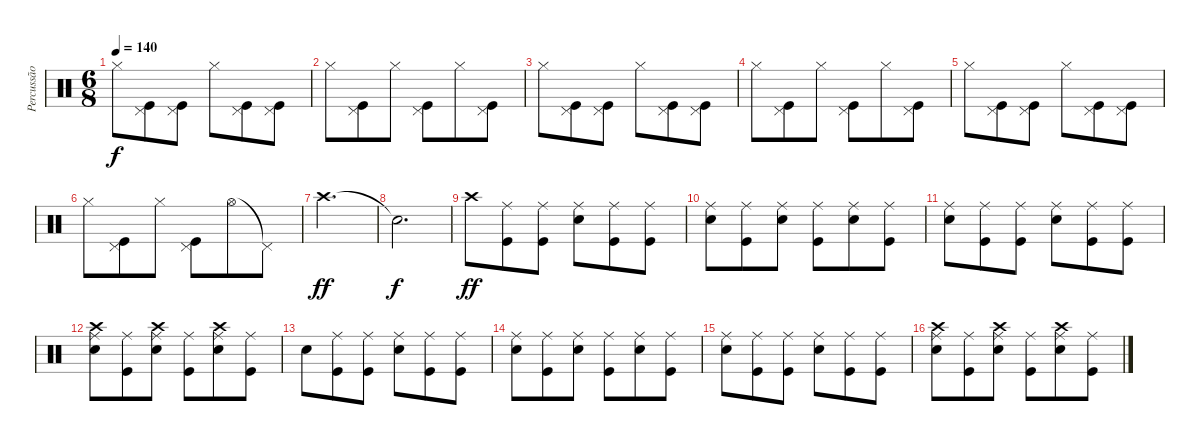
\track ("Percussão" "Percussão") {instrument percussion}
\staff {score}
\articulation defaults
\ts (6 8)
\tempo 140
\clef neutral
\ks c "Hi-Hat (closed)".8{dy f}
("Pedal Hi-Hat (hit)" "Kick (hit)").8 ("Pedal Hi-Hat (hit)" "Kick (hit)").8 "Hi-Hat (closed)".8 ("Pedal Hi-Hat (hit)" "Kick (hit)").8 ("Pedal Hi-Hat (hit)" "Kick (hit)").8 |
"Hi-Hat (closed)".8 ("Pedal Hi-Hat (hit)" "Kick (hit)").8 "Hi-Hat (closed)".8 ("Pedal Hi-Hat (hit)" "Kick (hit)").8 "Hi-Hat (closed)".8 ("Pedal Hi-Hat (hit)" "Kick (hit)").8 |
"Hi-Hat (closed)".8 ("Pedal Hi-Hat (hit)" "Kick (hit)").8 ("Pedal Hi-Hat (hit)" "Kick (hit)").8 "Hi-Hat (closed)".8 ("Pedal Hi-Hat (hit)" "Kick (hit)").8 ("Pedal Hi-Hat (hit)" "Kick (hit)").8 |
"Hi-Hat (closed)".8 ("Pedal Hi-Hat (hit)" "Kick (hit)").8 "Hi-Hat (closed)".8 ("Pedal Hi-Hat (hit)" "Kick (hit)").8 "Hi-Hat (closed)".8 ("Pedal Hi-Hat (hit)" "Kick (hit)").8 |
"Hi-Hat (closed)".8 ("Pedal Hi-Hat (hit)" "Kick (hit)").8 ("Pedal Hi-Hat (hit)" "Kick (hit)").8 "Hi-Hat (closed)".8 ("Pedal Hi-Hat (hit)" "Kick (hit)").8 ("Pedal Hi-Hat (hit)" "Kick (hit)").8 |
"Hi-Hat (closed)".8 ("Pedal Hi-Hat (hit)" "Kick (hit)").8 "Hi-Hat (closed)".8 ("Pedal Hi-Hat (hit)" "Kick (hit)").8 "Hi-Hat (open)".8 "Pedal Hi-Hat (hit)"{t}.8 |
"Crash high (hit)".2{d dy ff} |
"Snare (hit)"{t}.2{d dy f} |
"Crash high (hit)".8{dy ff} ("Ride (middle)" "Kick (hit)").8 ("Ride (middle)" "Kick (hit)").8 ("Ride (middle)" "Snare (hit) 2").8 ("Ride (middle)" "Kick (hit)").8 ("Ride (middle)" "Kick (hit)").8 |
("Ride (middle)" "Snare (hit) 2").8 ("Ride (middle)" "Kick (hit)").8 ("Ride (middle)" "Snare (hit) 2").8 ("Ride (middle)" "Kick (hit)").8 ("Ride (middle)" "Snare (hit) 2").8 ("Ride (middle)" "Kick (hit)").8 |
("Ride (middle)" "Snare (hit) 2").8 ("Ride (middle)" "Kick (hit)").8 ("Ride (middle)" "Kick (hit)").8 ("Ride (middle)" "Snare (hit) 2").8 ("Ride (middle)" "Kick (hit)").8 ("Ride (middle)" "Kick (hit)").8 |
("Crash high (hit)" "Ride (middle)" "Snare (hit) 2").8 ("Ride (middle)" "Kick (hit)").8 ("Crash high (hit)" "Ride (middle)" "Snare (hit) 2").8 ("Ride (middle)" "Kick (hit)").8 ("Crash high (hit)" "Ride (middle)" "Snare (hit) 2").8 ("Ride (middle)" "Kick (hit)").8 |
"Snare (hit) 2".8 ("Ride (middle)" "Kick (hit)").8 ("Ride (middle)" "Kick (hit)").8 ("Ride (middle)" "Snare (hit) 2").8 ("Ride (middle)" "Kick (hit)").8 ("Ride (middle)" "Kick (hit)").8 |
("Ride (middle)" "Snare (hit) 2").8 ("Ride (middle)" "Kick (hit)").8 ("Ride (middle)" "Snare (hit) 2").8 ("Ride (middle)" "Kick (hit)").8 ("Ride (middle)" "Snare (hit) 2").8 ("Ride (middle)" "Kick (hit)").8 |
("Ride (middle)" "Snare (hit) 2").8 ("Ride (middle)" "Kick (hit)").8 ("Ride (middle)" "Kick (hit)").8 ("Ride (middle)" "Snare (hit) 2").8 ("Ride (middle)" "Kick (hit)").8 ("Ride (middle)" "Kick (hit)").8 |
("Crash high (hit)" "Ride (middle)" "Snare (hit) 2").8 ("Ride (middle)" "Kick (hit)").8 ("Crash high (hit)" "Ride (middle)" "Snare (hit) 2").8 ("Ride (middle)" "Kick (hit)").8 ("Crash high (hit)" "Ride (middle)" "Snare (hit) 2").8 ("Ride (middle)" "Kick (hit)").8
